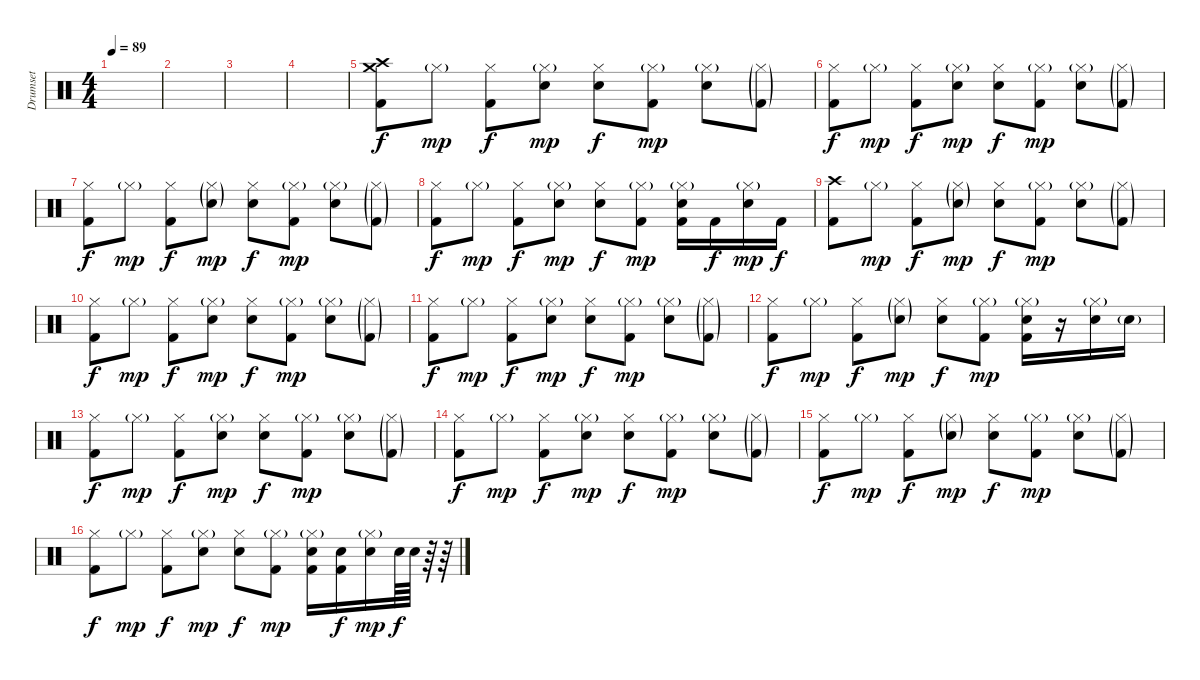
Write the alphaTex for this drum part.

\track ("Drumset" "Drumset") {instrument percussion}
\staff {score}
\articulation defaults
\ts (4 4)
\tempo 89
\clef neutral
\ks c
|
|
|
|
("Crash high (hit)" "Crash medium (hit)" "Kick (hit) 2").8 "Hi-Hat (closed)"{g}.8{dy mp} ("Hi-Hat (closed)" "Kick (hit) 2").8{dy f} ("Hi-Hat (closed)"{g} "Electric Snare (hit)").8{dy mp} ("Hi-Hat (closed)" "Snare (hit) 2").8{dy f} ("Hi-Hat (closed)"{g} "Kick (hit) 2").8{dy mp} ("Hi-Hat (closed)"{g} "Electric Snare (hit)").8 ("Hi-Hat (closed)"{g} "Kick (hit) 2"{g}).8 |
("Hi-Hat (closed)" "Kick (hit) 2").8{dy f} "Hi-Hat (closed)"{g}.8{dy mp} ("Hi-Hat (closed)" "Kick (hit) 2").8{dy f} ("Hi-Hat (closed)"{g} "Electric Snare (hit)").8{dy mp} ("Hi-Hat (closed)" "Snare (hit) 2").8{dy f} ("Hi-Hat (closed)"{g} "Kick (hit) 2").8{dy mp} ("Hi-Hat (closed)"{g} "Electric Snare (hit)").8 ("Hi-Hat (closed)"{g} "Kick (hit) 2"{g}).8 |
("Hi-Hat (closed)" "Kick (hit) 2").8{dy f} "Hi-Hat (closed)"{g}.8{dy mp} ("Hi-Hat (closed)" "Kick (hit) 2").8{dy f} ("Hi-Hat (closed)"{g} "Electric Snare (hit)"{g}).8{dy mp} ("Hi-Hat (closed)" "Snare (hit) 2").8{dy f} ("Hi-Hat (closed)"{g} "Kick (hit) 2").8{dy mp} ("Hi-Hat (closed)"{g} "Electric Snare (hit)").8 ("Hi-Hat (closed)"{g} "Kick (hit) 2"{g}).8 |
("Hi-Hat (closed)" "Kick (hit) 2").8{dy f} "Hi-Hat (closed)"{g}.8{dy mp} ("Hi-Hat (closed)" "Kick (hit) 2").8{dy f} ("Hi-Hat (closed)"{g} "Electric Snare (hit)").8{dy mp} ("Hi-Hat (closed)" "Snare (hit) 2").8{dy f} ("Hi-Hat (closed)"{g} "Kick (hit) 2").8{dy mp} ("Hi-Hat (closed)"{g} "Snare (hit) 2" "Kick (hit) 2").16 "Kick (hit) 2".16{dy f} ("Hi-Hat (closed)"{g} "Electric Snare (hit)").16{dy mp} "Kick (hit) 2".16{dy f} |
("Crash high (hit)" "Kick (hit) 2").8 "Hi-Hat (closed)"{g}.8{dy mp} ("Hi-Hat (closed)" "Kick (hit) 2").8{dy f} ("Hi-Hat (closed)"{g} "Electric Snare (hit)"{g}).8{dy mp} ("Hi-Hat (closed)" "Snare (hit) 2").8{dy f} ("Hi-Hat (closed)"{g} "Kick (hit) 2").8{dy mp} ("Hi-Hat (closed)"{g} "Electric Snare (hit)").8 ("Hi-Hat (closed)"{g} "Kick (hit) 2"{g}).8 |
("Hi-Hat (closed)" "Kick (hit) 2").8{dy f} "Hi-Hat (closed)"{g}.8{dy mp} ("Hi-Hat (closed)" "Kick (hit) 2").8{dy f} ("Hi-Hat (closed)"{g} "Electric Snare (hit)").8{dy mp} ("Hi-Hat (closed)" "Snare (hit) 2").8{dy f} ("Hi-Hat (closed)"{g} "Kick (hit) 2").8{dy mp} ("Hi-Hat (closed)"{g} "Electric Snare (hit)").8 ("Hi-Hat (closed)"{g} "Kick (hit) 2"{g}).8 |
("Hi-Hat (closed)" "Kick (hit) 2").8{dy f} "Hi-Hat (closed)"{g}.8{dy mp} ("Hi-Hat (closed)" "Kick (hit) 2").8{dy f} ("Hi-Hat (closed)"{g} "Electric Snare (hit)").8{dy mp} ("Hi-Hat (closed)" "Snare (hit) 2").8{dy f} ("Hi-Hat (closed)"{g} "Kick (hit) 2").8{dy mp} ("Hi-Hat (closed)"{g} "Electric Snare (hit)").8 ("Hi-Hat (closed)"{g} "Kick (hit) 2"{g}).8 |
("Hi-Hat (closed)" "Kick (hit) 2").8{dy f} "Hi-Hat (closed)"{g}.8{dy mp} ("Hi-Hat (closed)" "Kick (hit) 2").8{dy f} ("Hi-Hat (closed)"{g} "Electric Snare (hit)"{g}).8{dy mp} ("Hi-Hat (closed)" "Snare (hit) 2").8{dy f} ("Hi-Hat (closed)"{g} "Kick (hit) 2").8{dy mp} ("Hi-Hat (closed)"{g} "Snare (hit) 2" "Kick (hit) 2").16 r.16 ("Hi-Hat (closed)"{g} "Electric Snare (hit)").16 "Snare (hit) 2"{g}.16 |
("Hi-Hat (closed)" "Kick (hit) 2").8{dy f} "Hi-Hat (closed)"{g}.8{dy mp} ("Hi-Hat (closed)" "Kick (hit) 2").8{dy f} ("Hi-Hat (closed)"{g} "Electric Snare (hit)").8{dy mp} ("Hi-Hat (closed)" "Snare (hit) 2").8{dy f} ("Hi-Hat (closed)"{g} "Kick (hit) 2").8{dy mp} ("Hi-Hat (closed)"{g} "Electric Snare (hit)").8 ("Hi-Hat (closed)"{g} "Kick (hit) 2"{g}).8 |
("Hi-Hat (closed)" "Kick (hit) 2").8{dy f} "Hi-Hat (closed)"{g}.8{dy mp} ("Hi-Hat (closed)" "Kick (hit) 2").8{dy f} ("Hi-Hat (closed)"{g} "Electric Snare (hit)").8{dy mp} ("Hi-Hat (closed)" "Snare (hit) 2").8{dy f} ("Hi-Hat (closed)"{g} "Kick (hit) 2").8{dy mp} ("Hi-Hat (closed)"{g} "Electric Snare (hit)").8 ("Hi-Hat (closed)"{g} "Kick (hit) 2"{g}).8 |
("Hi-Hat (closed)" "Kick (hit) 2").8{dy f} "Hi-Hat (closed)"{g}.8{dy mp} ("Hi-Hat (closed)" "Kick (hit) 2").8{dy f} ("Hi-Hat (closed)"{g} "Electric Snare (hit)"{g}).8{dy mp} ("Hi-Hat (closed)" "Snare (hit) 2").8{dy f} ("Hi-Hat (closed)"{g} "Kick (hit) 2").8{dy mp} ("Hi-Hat (closed)"{g} "Electric Snare (hit)").8 ("Hi-Hat (closed)"{g} "Kick (hit) 2"{g}).8 |
("Hi-Hat (closed)" "Kick (hit) 2").8{dy f} "Hi-Hat (closed)"{g}.8{dy mp} ("Hi-Hat (closed)" "Kick (hit) 2").8{dy f} ("Hi-Hat (closed)"{g} "Electric Snare (hit)").8{dy mp} ("Hi-Hat (closed)" "Snare (hit) 2").8{dy f} ("Hi-Hat (closed)"{g} "Kick (hit) 2").8{dy mp} ("Hi-Hat (closed)"{g} "Electric Snare (hit)" "Kick (hit) 2").16 ("Snare (hit) 2" "Kick (hit) 2").16{dy f} ("Hi-Hat (closed)"{g} "Electric Snare (hit)").16{dy mp} "Electric Snare (hit)".64{dy f} "Snare (hit) 2".64 r.64 r.64
